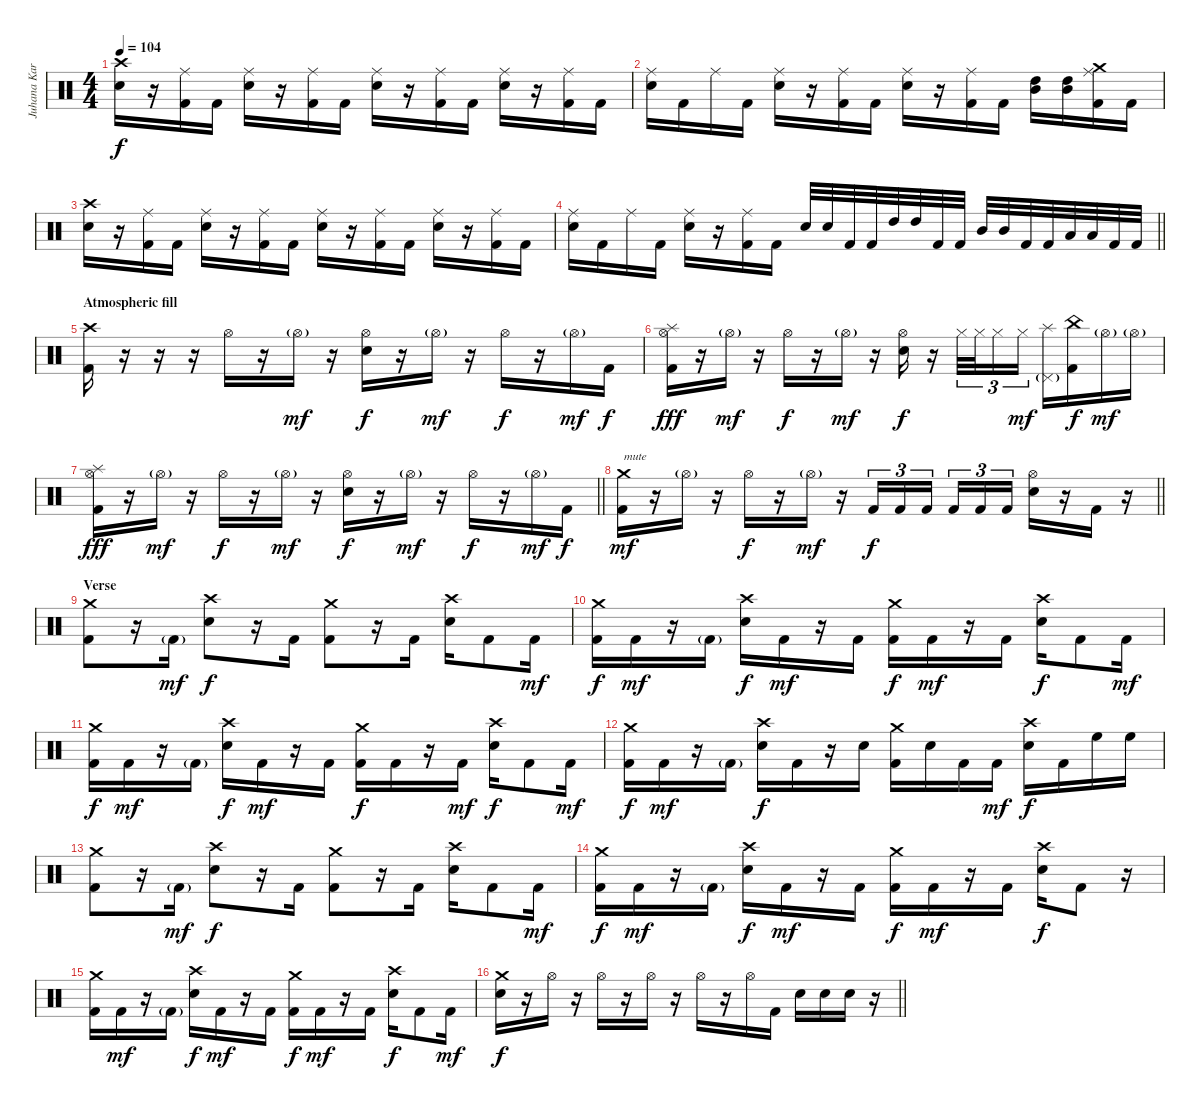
\track ("Juhana Karlsson" "Juhana Kar") {instrument percussion}
\staff {score}
\articulation defaults
\ts (4 4)
\tempo 104
\clef neutral
\ks c
("Crash high (hit)" "Electric Snare (hit)").16{dy f} r.16 ("Ride (middle)" "Kick (hit) 2").16 "Kick (hit) 2".16 ("Ride (middle)" "Electric Snare (hit)").16 r.16 ("Ride (middle)" "Kick (hit) 2").16 "Kick (hit) 2".16 ("Ride (middle)" "Electric Snare (hit)").16 r.16 ("Ride (middle)" "Kick (hit) 2").16 "Kick (hit) 2".16 ("Ride (middle)" "Electric Snare (hit)").16 r.16 ("Ride (middle)" "Kick (hit) 2").16 "Kick (hit) 2".16 |
("Ride (middle)" "Electric Snare (hit)").16 "Kick (hit) 2".16 "Ride (middle)".16 "Kick (hit) 2".16 ("Ride (middle)" "Electric Snare (hit)").16 r.16 ("Ride (middle)" "Kick (hit) 2").16 "Kick (hit) 2".16 ("Ride (middle)" "Electric Snare (hit)").16 r.16 ("Ride (middle)" "Kick (hit) 2").16 "Kick (hit) 2".16 ("High Tom (hit)" "Mid Tom (hit)").16 ("High Tom (hit)" "Mid Tom (hit)").16 ("Crash medium (hit)" "Ride (middle)" "Kick (hit) 2").16 "Kick (hit) 2".16 |
("Crash high (hit)" "Electric Snare (hit)").16 r.16 ("Ride (middle)" "Kick (hit) 2").16 "Kick (hit) 2".16 ("Ride (middle)" "Electric Snare (hit)").16 r.16 ("Ride (middle)" "Kick (hit) 2").16 "Kick (hit) 2".16 ("Ride (middle)" "Electric Snare (hit)").16 r.16 ("Ride (middle)" "Kick (hit) 2").16 "Kick (hit) 2".16 ("Ride (middle)" "Electric Snare (hit)").16 r.16 ("Ride (middle)" "Kick (hit) 2").16 "Kick (hit) 2".16 |
\barLineRight lightlight
("Ride (middle)" "Electric Snare (hit)").16 "Kick (hit) 2".16 "Ride (middle)".16 "Kick (hit) 2".16 ("Ride (middle)" "Electric Snare (hit)").16 r.16 ("Ride (middle)" "Kick (hit) 2").16 "Kick (hit) 2".16 "Electric Snare (hit)".32 "Electric Snare (hit)".32 "Kick (hit) 2".32 "Kick (hit) 2".32 "High Tom (hit)".32 "High Tom (hit)".32 "Kick (hit) 2".32 "Kick (hit) 2".32 "Mid Tom (hit)".32 "Mid Tom (hit)".32 "Kick (hit) 2".32 "Kick (hit) 2".32 "Low Tom (hit)".32 "Low Tom (hit)".32 "Kick (hit) 2".32 "Kick (hit) 2".32 |
\section ("" "Atmospheric fill")
("Crash high (hit)" "Kick (hit) 2").16 r.16 r.16 r.16 "Hi-Hat (open)".16 r.16 "Hi-Hat (open)"{g}.16{dy mf} r.16 ("Hi-Hat (open)" "Electric Snare (hit)").16{dy f} r.16 "Hi-Hat (open)"{g}.16{dy mf} r.16 "Hi-Hat (open)".16{dy f} r.16 "Hi-Hat (open)"{g}.16{dy mf} "Kick (hit) 2".16{dy f} |
("Splash (hit)" "Hi-Hat (open)" "Kick (hit) 2").16{dy fff} r.16 "Hi-Hat (open)"{g}.16{dy mf} r.16 "Hi-Hat (open)".16{dy f} r.16 "Hi-Hat (open)"{g}.16{dy mf} r.16 ("Hi-Hat (open)" "Electric Snare (hit)").16{dy f} r.16 "Hi-Hat (closed)".32{tu (3 2)} "Hi-Hat (closed)".32{tu (3 2)} "Hi-Hat (closed)".16{tu (3 2)} "Hi-Hat (closed)".16{tu (3 2) dy mf} ("Splash (hit)" "Pedal Hi-Hat (hit)"{g}).16 ("China (hit)" "Kick (hit) 2").16{dy f} "Hi-Hat (open)"{g}.16{dy mf} "Hi-Hat (open)"{g}.16 |
\barLineRight lightlight
("Splash (hit)" "Hi-Hat (open)" "Kick (hit) 2").16{dy fff} r.16 "Hi-Hat (open)"{g}.16{dy mf} r.16 "Hi-Hat (open)".16{dy f} r.16 "Hi-Hat (open)"{g}.16{dy mf} r.16 ("Hi-Hat (open)" "Electric Snare (hit)").16{dy f} r.16 "Hi-Hat (open)"{g}.16{dy mf} r.16 "Hi-Hat (open)".16{dy f} r.16 "Hi-Hat (open)"{g}.16{dy mf} "Kick (hit) 2".16{dy f} |
\barLineRight lightlight
("Crash medium (hit)" "Kick (hit) 2").16{txt "mute" dy mf} r.16{volume 0} "Hi-Hat (open)"{g}.16{volume 14} r.16 "Hi-Hat (open)".16{dy f} r.16 "Hi-Hat (open)"{g}.16{dy mf} r.16 "Kick (hit) 2".16{tu (3 2) dy f} "Kick (hit) 2".16{tu (3 2)} "Kick (hit) 2".16{tu (3 2) beam splitsecondary} "Kick (hit) 2".16{tu (3 2)} "Kick (hit) 2".16{tu (3 2)} "Kick (hit) 2".16{tu (3 2)} ("Hi-Hat (open)" "Electric Snare (hit)").16 r.16 "Kick (hit) 2".16 r.16 |
\section ("" "Verse")
("Crash medium (hit)" "Kick (hit) 2").8 r.16 "Kick (hit) 2"{g}.16{dy mf} ("Crash high (hit)" "Electric Snare (hit)").8{dy f} r.16 "Kick (hit) 2".16 ("Crash medium (hit)" "Kick (hit) 2").8 r.16 "Kick (hit) 2".16 ("Crash high (hit)" "Electric Snare (hit)").16 "Kick (hit) 2".8 "Kick (hit) 2".16{dy mf} |
("Crash medium (hit)" "Kick (hit) 2").16{dy f} "Kick (hit) 2".16{dy mf} r.16 "Kick (hit) 2"{g}.16 ("Crash high (hit)" "Electric Snare (hit)").16{dy f} "Kick (hit) 2".16{dy mf} r.16 "Kick (hit) 2".16 ("Crash medium (hit)" "Kick (hit) 2").16{dy f} "Kick (hit) 2".16{dy mf} r.16 "Kick (hit) 2".16 ("Crash high (hit)" "Electric Snare (hit)").16{dy f} "Kick (hit) 2".8 "Kick (hit) 2".16{dy mf} |
("Crash medium (hit)" "Kick (hit) 2").16{dy f} "Kick (hit) 2".16{dy mf} r.16 "Kick (hit) 2"{g}.16 ("Crash high (hit)" "Electric Snare (hit)").16{dy f} "Kick (hit) 2".16{dy mf} r.16 "Kick (hit) 2".16 ("Crash medium (hit)" "Kick (hit) 2").16{dy f} "Kick (hit) 2".16 r.16 "Kick (hit) 2".16{dy mf} ("Crash high (hit)" "Electric Snare (hit)").16{dy f} "Kick (hit) 2".8 "Kick (hit) 2".16{dy mf} |
("Crash medium (hit)" "Kick (hit) 2").16{dy f} "Kick (hit) 2".16{dy mf} r.16 "Kick (hit) 2"{g}.16 ("Crash high (hit)" "Electric Snare (hit)").16{dy f} "Kick (hit) 2".16 r.16 "Electric Snare (hit)".16 ("Crash medium (hit)" "Kick (hit) 2").16 "Electric Snare (hit)".16 "Kick (hit) 2".16 "Kick (hit) 2".16{dy mf} ("Crash high (hit)" "Electric Snare (hit)").16{dy f} "Kick (hit) 2".16 "High Floor Tom (hit)".16 "High Floor Tom (hit)".16 |
("Crash medium (hit)" "Kick (hit) 2").8 r.16 "Kick (hit) 2"{g}.16{dy mf} ("Crash high (hit)" "Electric Snare (hit)").8{dy f} r.16 "Kick (hit) 2".16 ("Crash medium (hit)" "Kick (hit) 2").8 r.16 "Kick (hit) 2".16 ("Crash high (hit)" "Electric Snare (hit)").16 "Kick (hit) 2".8 "Kick (hit) 2".16{dy mf} |
("Crash medium (hit)" "Kick (hit) 2").16{dy f} "Kick (hit) 2".16{dy mf} r.16 "Kick (hit) 2"{g}.16 ("Crash high (hit)" "Electric Snare (hit)").16{dy f} "Kick (hit) 2".16{dy mf} r.16 "Kick (hit) 2".16 ("Crash medium (hit)" "Kick (hit) 2").16{dy f} "Kick (hit) 2".16{dy mf} r.16 "Kick (hit) 2".16 ("Crash high (hit)" "Electric Snare (hit)").16{dy f} "Kick (hit) 2".8 r.16 |
("Crash medium (hit)" "Kick (hit) 2").16 "Kick (hit) 2".16{dy mf} r.16 "Kick (hit) 2"{g}.16 ("Crash high (hit)" "Electric Snare (hit)").16{dy f} "Kick (hit) 2".16{dy mf} r.16 "Kick (hit) 2".16 ("Crash medium (hit)" "Kick (hit) 2").16{dy f} "Kick (hit) 2".16{dy mf} r.16 "Kick (hit) 2".16 ("Crash high (hit)" "Electric Snare (hit)").16{dy f} "Kick (hit) 2".8 "Kick (hit) 2".16{dy mf} |
\barLineRight lightlight
("Crash medium (hit)" "Electric Snare (hit)").16{dy f} r.16 "Hi-Hat (open)".16 r.16 "Hi-Hat (open)".16 r.16 "Hi-Hat (open)".16 r.16 "Hi-Hat (open)".16 r.16 "Hi-Hat (open)".16 "Kick (hit) 2".16 "Electric Snare (hit)".16 "Electric Snare (hit)".16 "Electric Snare (hit)".16 r.16
